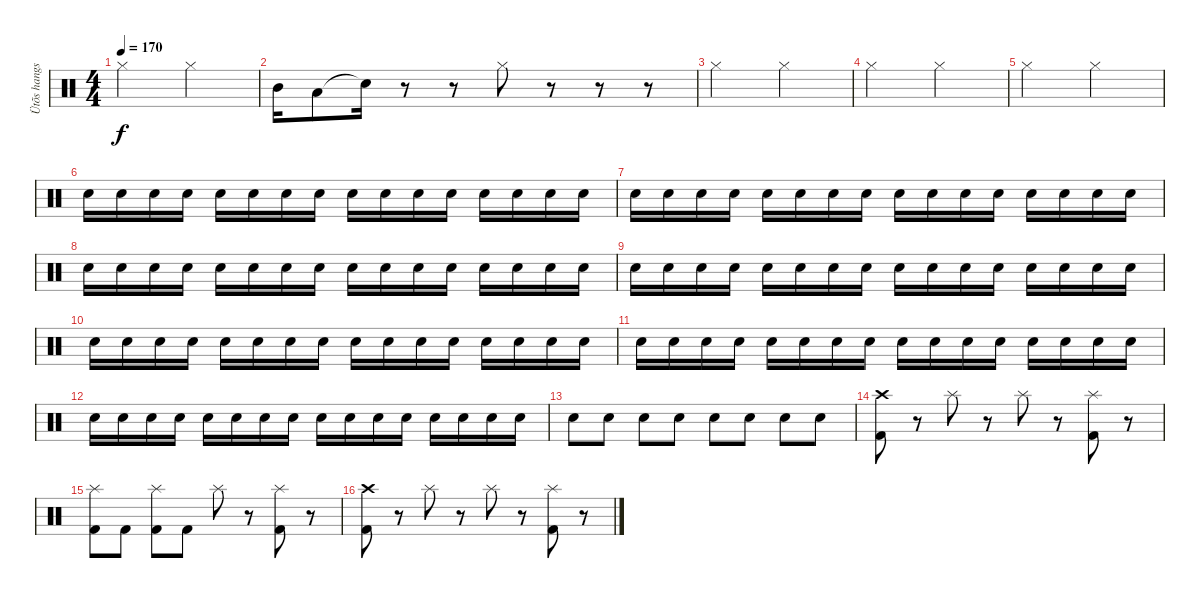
\track ("Ütõs hangszer" "Ütõs hangs") {instrument percussion}
\staff {score}
\articulation defaults
\ts (4 4)
\tempo 170
\clef neutral
\ks c "Hi-Hat (closed)".2{dy f} "Hi-Hat (closed)".2
|
"Mid Tom (hit)".16 "Low Tom (hit)".8 "Snare (hit)"{t}.16 r.8 r.8 "Hi-Hat (closed)".8 r.8 r.8 r.8 |
"Hi-Hat (closed)".2 "Hi-Hat (closed)".2 |
"Hi-Hat (closed)".2 "Hi-Hat (closed)".2 |
"Hi-Hat (closed)".2 "Hi-Hat (closed)".2 |
"Snare (hit) 2".16{volume 7} "Snare (hit) 2".16 "Snare (hit) 2".16 "Snare (hit) 2".16 "Snare (hit) 2".16 "Snare (hit) 2".16 "Snare (hit) 2".16 "Snare (hit) 2".16 "Snare (hit) 2".16 "Snare (hit) 2".16 "Snare (hit) 2".16 "Snare (hit) 2".16 "Snare (hit) 2".16 "Snare (hit) 2".16 "Snare (hit) 2".16 "Snare (hit) 2".16 |
"Snare (hit) 2".16 "Snare (hit) 2".16 "Snare (hit) 2".16 "Snare (hit) 2".16 "Snare (hit) 2".16 "Snare (hit) 2".16 "Snare (hit) 2".16 "Snare (hit) 2".16 "Snare (hit) 2".16 "Snare (hit) 2".16 "Snare (hit) 2".16 "Snare (hit) 2".16 "Snare (hit) 2".16 "Snare (hit) 2".16 "Snare (hit) 2".16 "Snare (hit) 2".16 |
"Snare (hit) 2".16 "Snare (hit) 2".16 "Snare (hit) 2".16 "Snare (hit) 2".16 "Snare (hit) 2".16 "Snare (hit) 2".16 "Snare (hit) 2".16 "Snare (hit) 2".16 "Snare (hit) 2".16 "Snare (hit) 2".16 "Snare (hit) 2".16 "Snare (hit) 2".16 "Snare (hit) 2".16 "Snare (hit) 2".16 "Snare (hit) 2".16 "Snare (hit) 2".16 |
"Snare (hit) 2".16 "Snare (hit) 2".16 "Snare (hit) 2".16 "Snare (hit) 2".16 "Snare (hit) 2".16 "Snare (hit) 2".16 "Snare (hit) 2".16 "Snare (hit) 2".16 "Snare (hit) 2".16 "Snare (hit) 2".16 "Snare (hit) 2".16 "Snare (hit) 2".16 "Snare (hit) 2".16 "Snare (hit) 2".16 "Snare (hit) 2".16 "Snare (hit) 2".16 |
"Snare (hit) 2".16 "Snare (hit) 2".16 "Snare (hit) 2".16 "Snare (hit) 2".16 "Snare (hit) 2".16 "Snare (hit) 2".16 "Snare (hit) 2".16 "Snare (hit) 2".16 "Snare (hit) 2".16 "Snare (hit) 2".16 "Snare (hit) 2".16 "Snare (hit) 2".16 "Snare (hit) 2".16 "Snare (hit) 2".16 "Snare (hit) 2".16 "Snare (hit) 2".16 |
"Snare (hit) 2".16 "Snare (hit) 2".16 "Snare (hit) 2".16 "Snare (hit) 2".16 "Snare (hit) 2".16 "Snare (hit) 2".16 "Snare (hit) 2".16 "Snare (hit) 2".16 "Snare (hit) 2".16 "Snare (hit) 2".16 "Snare (hit) 2".16 "Snare (hit) 2".16 "Snare (hit) 2".16 "Snare (hit) 2".16 "Snare (hit) 2".16 "Snare (hit) 2".16 |
"Snare (hit) 2".16 "Snare (hit) 2".16 "Snare (hit) 2".16 "Snare (hit) 2".16 "Snare (hit) 2".16 "Snare (hit) 2".16 "Snare (hit) 2".16 "Snare (hit) 2".16 "Snare (hit) 2".16 "Snare (hit) 2".16 "Snare (hit) 2".16 "Snare (hit) 2".16 "Snare (hit) 2".16 "Snare (hit) 2".16 "Snare (hit) 2".16 "Snare (hit) 2".16 |
"Snare (hit) 2".8{volume 13} "Snare (hit) 2".8 "Snare (hit) 2".8 "Snare (hit) 2".8 "Snare (hit) 2".8 "Snare (hit) 2".8 "Snare (hit) 2".8 "Snare (hit) 2".8 |
("Crash high (hit)" "Kick (hit) 2").8 r.8 "Splash (hit)".8 r.8 "Splash (hit)".8 r.8 ("Splash (hit)" "Kick (hit) 2").8 r.8 |
("Splash (hit)" "Kick (hit) 2").8 "Kick (hit) 2".8 ("Splash (hit)" "Kick (hit) 2").8 "Kick (hit) 2".8 "Splash (hit)".8 r.8 ("Splash (hit)" "Kick (hit) 2").8 r.8 |
("Crash high (hit)" "Kick (hit) 2").8 r.8 "Splash (hit)".8 r.8 "Splash (hit)".8 r.8 ("Splash (hit)" "Kick (hit) 2").8 r.8
